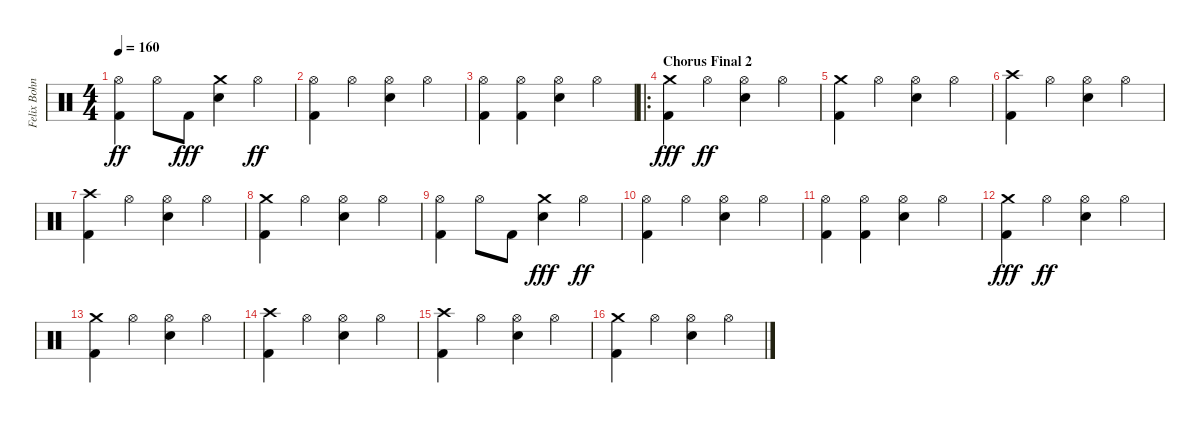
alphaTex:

\track ("Felix Bohnke" "Felix Bohn") {instrument percussion}
\staff {score}
\articulation defaults
\ts (4 4)
\tempo 160
\clef neutral
\ks c
("Kick (hit) 2" "Hi-Hat (open)").4{dy ff} "Hi-Hat (open)".8 "Kick (hit) 2".8{dy fff} ("Snare (hit) 2" "Crash medium (hit)").4 "Hi-Hat (open)".4{dy ff} |
("Kick (hit) 2" "Hi-Hat (open)").4 "Hi-Hat (open)".4 ("Snare (hit) 2" "Hi-Hat (open)").4 "Hi-Hat (open)".4 |
("Kick (hit) 2" "Hi-Hat (open)").4 ("Kick (hit) 2" "Hi-Hat (open)").4 ("Snare (hit) 2" "Hi-Hat (open)").4 "Hi-Hat (open)".4 |
\ro
\section ("" "Chorus Final 2")
("Kick (hit) 2" "Crash medium (hit)").4{dy fff} "Hi-Hat (open)".4{dy ff} ("Snare (hit) 2" "Hi-Hat (open)").4 "Hi-Hat (open)".4 |
("Kick (hit) 2" "Crash medium (hit)").4 "Hi-Hat (open)".4 ("Snare (hit) 2" "Hi-Hat (open)").4 "Hi-Hat (open)".4 |
("Kick (hit) 2" "Crash high (hit)").4 "Hi-Hat (open)".4 ("Snare (hit) 2" "Hi-Hat (open)").4 "Hi-Hat (open)".4 |
("Kick (hit) 2" "Crash high (hit)").4 "Hi-Hat (open)".4 ("Snare (hit) 2" "Hi-Hat (open)").4 "Hi-Hat (open)".4 |
("Kick (hit) 2" "Crash medium (hit)").4 "Hi-Hat (open)".4 ("Snare (hit) 2" "Hi-Hat (open)").4 "Hi-Hat (open)".4 |
("Kick (hit) 2" "Hi-Hat (open)").4 "Hi-Hat (open)".8 "Kick (hit) 2".8 ("Snare (hit) 2" "Crash medium (hit)").4{dy fff} "Hi-Hat (open)".4{dy ff} |
("Kick (hit) 2" "Hi-Hat (open)").4 "Hi-Hat (open)".4 ("Snare (hit) 2" "Hi-Hat (open)").4 "Hi-Hat (open)".4 |
("Kick (hit) 2" "Hi-Hat (open)").4 ("Kick (hit) 2" "Hi-Hat (open)").4 ("Snare (hit) 2" "Hi-Hat (open)").4 "Hi-Hat (open)".4 |
("Kick (hit) 2" "Crash medium (hit)").4{dy fff} "Hi-Hat (open)".4{dy ff} ("Snare (hit) 2" "Hi-Hat (open)").4 "Hi-Hat (open)".4 |
("Kick (hit) 2" "Crash medium (hit)").4 "Hi-Hat (open)".4 ("Snare (hit) 2" "Hi-Hat (open)").4 "Hi-Hat (open)".4 |
("Kick (hit) 2" "Crash high (hit)").4 "Hi-Hat (open)".4 ("Snare (hit) 2" "Hi-Hat (open)").4 "Hi-Hat (open)".4 |
("Kick (hit) 2" "Crash high (hit)").4 "Hi-Hat (open)".4 ("Snare (hit) 2" "Hi-Hat (open)").4 "Hi-Hat (open)".4 |
("Kick (hit) 2" "Crash medium (hit)").4 "Hi-Hat (open)".4 ("Snare (hit) 2" "Hi-Hat (open)").4 "Hi-Hat (open)".4
